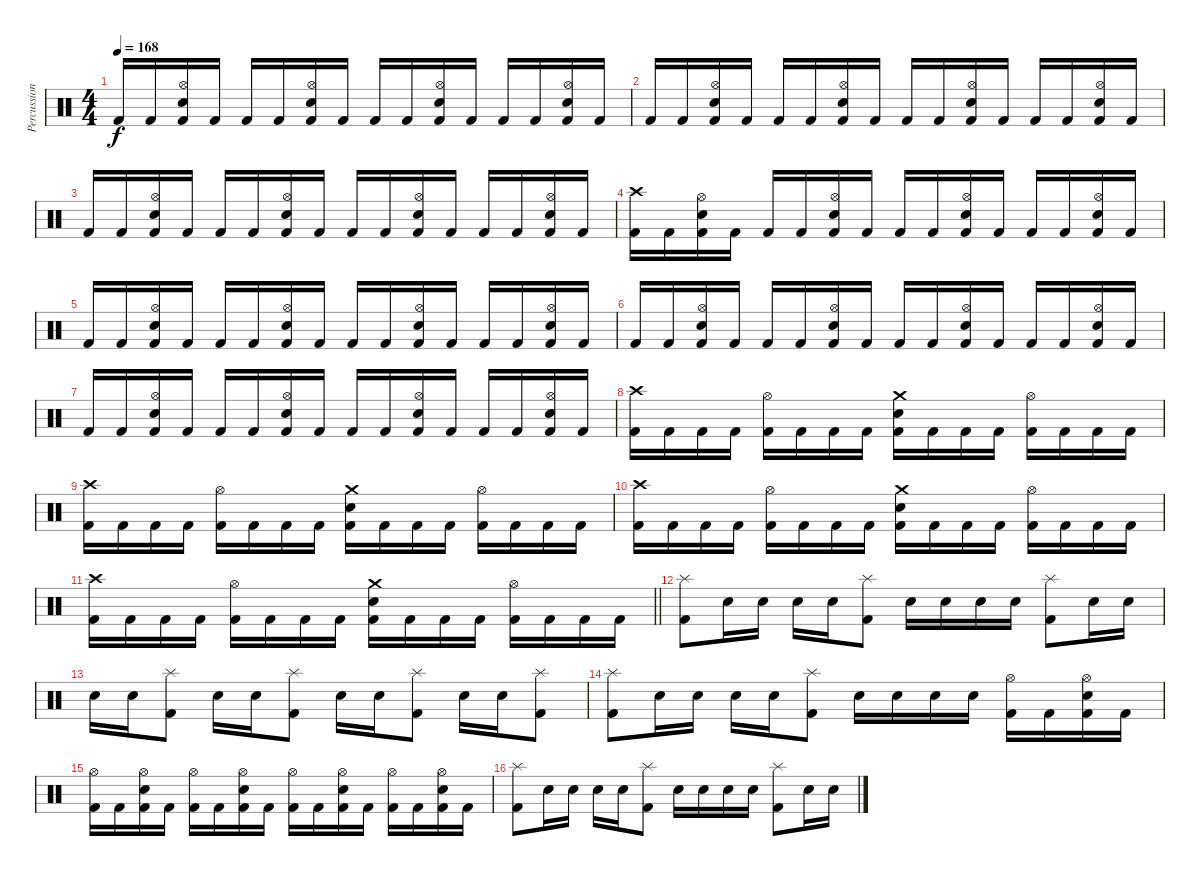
\track ("Percussions" "Percussion") {instrument percussion}
\staff {score}
\articulation defaults
\ts (4 4)
\tempo 168
\clef neutral
\ks c "Kick (hit) 2".16{dy f} "Kick (hit) 2".16
("Hi-Hat (open)" "Snare (hit) 2" "Kick (hit) 2").16 "Kick (hit) 2".16 "Kick (hit) 2".16 "Kick (hit) 2".16 ("Hi-Hat (open)" "Snare (hit) 2" "Kick (hit) 2").16 "Kick (hit) 2".16 "Kick (hit) 2".16 "Kick (hit) 2".16 ("Hi-Hat (open)" "Snare (hit) 2" "Kick (hit) 2").16 "Kick (hit) 2".16 "Kick (hit) 2".16 "Kick (hit) 2".16 ("Hi-Hat (open)" "Snare (hit) 2" "Kick (hit) 2").16 "Kick (hit) 2".16 |
"Kick (hit) 2".16 "Kick (hit) 2".16 ("Hi-Hat (open)" "Snare (hit) 2" "Kick (hit) 2").16 "Kick (hit) 2".16 "Kick (hit) 2".16 "Kick (hit) 2".16 ("Hi-Hat (open)" "Snare (hit) 2" "Kick (hit) 2").16 "Kick (hit) 2".16 "Kick (hit) 2".16 "Kick (hit) 2".16 ("Hi-Hat (open)" "Snare (hit) 2" "Kick (hit) 2").16 "Kick (hit) 2".16 "Kick (hit) 2".16 "Kick (hit) 2".16 ("Hi-Hat (open)" "Snare (hit) 2" "Kick (hit) 2").16 "Kick (hit) 2".16 |
"Kick (hit) 2".16 "Kick (hit) 2".16 ("Hi-Hat (open)" "Snare (hit) 2" "Kick (hit) 2").16 "Kick (hit) 2".16 "Kick (hit) 2".16 "Kick (hit) 2".16 ("Hi-Hat (open)" "Snare (hit) 2" "Kick (hit) 2").16 "Kick (hit) 2".16 "Kick (hit) 2".16 "Kick (hit) 2".16 ("Hi-Hat (open)" "Snare (hit) 2" "Kick (hit) 2").16 "Kick (hit) 2".16 "Kick (hit) 2".16 "Kick (hit) 2".16 ("Hi-Hat (open)" "Snare (hit) 2" "Kick (hit) 2").16 "Kick (hit) 2".16 |
("Crash high (hit)" "Kick (hit) 2").16 "Kick (hit) 2".16 ("Hi-Hat (open)" "Snare (hit) 2" "Kick (hit) 2").16 "Kick (hit) 2".16 "Kick (hit) 2".16 "Kick (hit) 2".16 ("Hi-Hat (open)" "Snare (hit) 2" "Kick (hit) 2").16 "Kick (hit) 2".16 "Kick (hit) 2".16 "Kick (hit) 2".16 ("Hi-Hat (open)" "Snare (hit) 2" "Kick (hit) 2").16 "Kick (hit) 2".16 "Kick (hit) 2".16 "Kick (hit) 2".16 ("Hi-Hat (open)" "Snare (hit) 2" "Kick (hit) 2").16 "Kick (hit) 2".16 |
"Kick (hit) 2".16 "Kick (hit) 2".16 ("Hi-Hat (open)" "Snare (hit) 2" "Kick (hit) 2").16 "Kick (hit) 2".16 "Kick (hit) 2".16 "Kick (hit) 2".16 ("Hi-Hat (open)" "Snare (hit) 2" "Kick (hit) 2").16 "Kick (hit) 2".16 "Kick (hit) 2".16 "Kick (hit) 2".16 ("Hi-Hat (open)" "Snare (hit) 2" "Kick (hit) 2").16 "Kick (hit) 2".16 "Kick (hit) 2".16 "Kick (hit) 2".16 ("Hi-Hat (open)" "Snare (hit) 2" "Kick (hit) 2").16 "Kick (hit) 2".16 |
"Kick (hit) 2".16 "Kick (hit) 2".16 ("Hi-Hat (open)" "Snare (hit) 2" "Kick (hit) 2").16 "Kick (hit) 2".16 "Kick (hit) 2".16 "Kick (hit) 2".16 ("Hi-Hat (open)" "Snare (hit) 2" "Kick (hit) 2").16 "Kick (hit) 2".16 "Kick (hit) 2".16 "Kick (hit) 2".16 ("Hi-Hat (open)" "Snare (hit) 2" "Kick (hit) 2").16 "Kick (hit) 2".16 "Kick (hit) 2".16 "Kick (hit) 2".16 ("Hi-Hat (open)" "Snare (hit) 2" "Kick (hit) 2").16 "Kick (hit) 2".16 |
"Kick (hit) 2".16 "Kick (hit) 2".16 ("Hi-Hat (open)" "Snare (hit) 2" "Kick (hit) 2").16 "Kick (hit) 2".16 "Kick (hit) 2".16 "Kick (hit) 2".16 ("Hi-Hat (open)" "Snare (hit) 2" "Kick (hit) 2").16 "Kick (hit) 2".16 "Kick (hit) 2".16 "Kick (hit) 2".16 ("Hi-Hat (open)" "Snare (hit) 2" "Kick (hit) 2").16 "Kick (hit) 2".16 "Kick (hit) 2".16 "Kick (hit) 2".16 ("Hi-Hat (open)" "Snare (hit) 2" "Kick (hit) 2").16 "Kick (hit) 2".16 |
("Crash high (hit)" "Kick (hit) 2").16 "Kick (hit) 2".16 "Kick (hit) 2".16 "Kick (hit) 2".16 ("Hi-Hat (open)" "Kick (hit) 2").16 "Kick (hit) 2".16 "Kick (hit) 2".16 "Kick (hit) 2".16 ("Crash medium (hit)" "Snare (hit) 2" "Kick (hit) 2").16 "Kick (hit) 2".16 "Kick (hit) 2".16 "Kick (hit) 2".16 ("Hi-Hat (open)" "Kick (hit) 2").16 "Kick (hit) 2".16 "Kick (hit) 2".16 "Kick (hit) 2".16 |
("Crash high (hit)" "Kick (hit) 2").16 "Kick (hit) 2".16 "Kick (hit) 2".16 "Kick (hit) 2".16 ("Hi-Hat (open)" "Kick (hit) 2").16 "Kick (hit) 2".16 "Kick (hit) 2".16 "Kick (hit) 2".16 ("Crash medium (hit)" "Snare (hit) 2" "Kick (hit) 2").16 "Kick (hit) 2".16 "Kick (hit) 2".16 "Kick (hit) 2".16 ("Hi-Hat (open)" "Kick (hit) 2").16 "Kick (hit) 2".16 "Kick (hit) 2".16 "Kick (hit) 2".16 |
("Crash high (hit)" "Kick (hit) 2").16 "Kick (hit) 2".16 "Kick (hit) 2".16 "Kick (hit) 2".16 ("Hi-Hat (open)" "Kick (hit) 2").16 "Kick (hit) 2".16 "Kick (hit) 2".16 "Kick (hit) 2".16 ("Crash medium (hit)" "Snare (hit) 2" "Kick (hit) 2").16 "Kick (hit) 2".16 "Kick (hit) 2".16 "Kick (hit) 2".16 ("Hi-Hat (open)" "Kick (hit) 2").16 "Kick (hit) 2".16 "Kick (hit) 2".16 "Kick (hit) 2".16 |
\barLineRight lightlight
("Crash high (hit)" "Kick (hit) 2").16 "Kick (hit) 2".16 "Kick (hit) 2".16 "Kick (hit) 2".16 ("Hi-Hat (open)" "Kick (hit) 2").16 "Kick (hit) 2".16 "Kick (hit) 2".16 "Kick (hit) 2".16 ("Crash medium (hit)" "Snare (hit) 2" "Kick (hit) 2").16 "Kick (hit) 2".16 "Kick (hit) 2".16 "Kick (hit) 2".16 ("Hi-Hat (open)" "Kick (hit) 2").16 "Kick (hit) 2".16 "Kick (hit) 2".16 "Kick (hit) 2".16 |
("Splash (hit)" "Kick (hit) 2").8 "Snare (hit) 2".16 "Snare (hit) 2".16 "Snare (hit) 2".16 "Snare (hit) 2".16 ("Splash (hit)" "Kick (hit) 2").8 "Snare (hit) 2".16 "Snare (hit) 2".16 "Snare (hit) 2".16 "Snare (hit) 2".16 ("Splash (hit)" "Kick (hit) 2").8 "Snare (hit) 2".16 "Snare (hit) 2".16 |
"Snare (hit) 2".16 "Snare (hit) 2".16 ("Splash (hit)" "Kick (hit) 2").8 "Snare (hit) 2".16 "Snare (hit) 2".16 ("Splash (hit)" "Kick (hit) 2").8 "Snare (hit) 2".16 "Snare (hit) 2".16 ("Splash (hit)" "Kick (hit) 2").8 "Snare (hit) 2".16 "Snare (hit) 2".16 ("Splash (hit)" "Kick (hit) 2").8 |
("Splash (hit)" "Kick (hit) 2").8 "Snare (hit) 2".16 "Snare (hit) 2".16 "Snare (hit) 2".16 "Snare (hit) 2".16 ("Splash (hit)" "Kick (hit) 2").8 "Snare (hit) 2".16 "Snare (hit) 2".16 "Snare (hit) 2".16 "Snare (hit) 2".16 ("Hi-Hat (open)" "Kick (hit) 2").16 "Kick (hit) 2".16 ("Hi-Hat (open)" "Snare (hit) 2" "Kick (hit) 2").16 "Kick (hit) 2".16 |
("Hi-Hat (open)" "Kick (hit) 2").16 "Kick (hit) 2".16 ("Hi-Hat (open)" "Snare (hit) 2" "Kick (hit) 2").16 "Kick (hit) 2".16 ("Hi-Hat (open)" "Kick (hit) 2").16 "Kick (hit) 2".16 ("Hi-Hat (open)" "Snare (hit) 2" "Kick (hit) 2").16 "Kick (hit) 2".16 ("Hi-Hat (open)" "Kick (hit) 2").16 "Kick (hit) 2".16 ("Hi-Hat (open)" "Snare (hit) 2" "Kick (hit) 2").16 "Kick (hit) 2".16 ("Hi-Hat (open)" "Kick (hit) 2").16 "Kick (hit) 2".16 ("Hi-Hat (open)" "Snare (hit) 2" "Kick (hit) 2").16 "Kick (hit) 2".16 |
("Splash (hit)" "Kick (hit) 2").8 "Snare (hit) 2".16 "Snare (hit) 2".16 "Snare (hit) 2".16 "Snare (hit) 2".16 ("Splash (hit)" "Kick (hit) 2").8 "Snare (hit) 2".16 "Snare (hit) 2".16 "Snare (hit) 2".16 "Snare (hit) 2".16 ("Splash (hit)" "Kick (hit) 2").8 "Snare (hit) 2".16 "Snare (hit) 2".16
